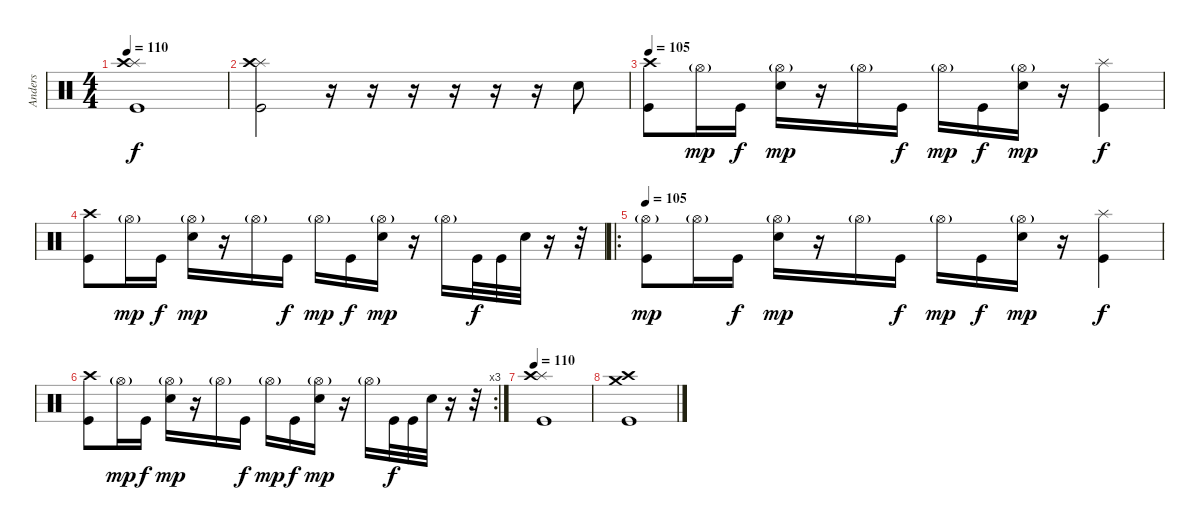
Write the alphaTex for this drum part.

\track ("Anders" "Anders") {instrument percussion}
\staff {score}
\articulation defaults
\ts (4 4)
\tempo 110
\clef neutral
\ks c
("Splash (hit)" "Crash high (hit)" "Kick (hit)").1{dy f} |
("Splash (hit)" "Crash high (hit)" "Kick (hit)").2 r.16 r.16 r.16 r.16 r.16 r.16 "Snare (hit) 2".8 |
\tempo 105
("Crash high (hit)" "Kick (hit)").8 "Hi-Hat (open)"{g}.16{dy mp} "Kick (hit)".16{dy f} ("Hi-Hat (open)"{g} "Snare (hit) 2").16{dy mp} r.16 "Hi-Hat (open)"{g}.16 "Kick (hit)".16{dy f} "Hi-Hat (open)"{g}.16{dy mp} "Kick (hit)".16{dy f} ("Hi-Hat (open)"{g} "Snare (hit) 2").16{dy mp} r.16 ("Splash (hit)" "Kick (hit)").4{dy f} |
("Crash high (hit)" "Kick (hit)").8 "Hi-Hat (open)"{g}.16{dy mp} "Kick (hit)".16{dy f} ("Hi-Hat (open)"{g} "Snare (hit) 2").16{dy mp} r.16 "Hi-Hat (open)"{g}.16 "Kick (hit)".16{dy f} "Hi-Hat (open)"{g}.16{dy mp} "Kick (hit)".16{dy f} ("Hi-Hat (open)"{g} "Snare (hit) 2").16{dy mp} r.16 "Hi-Hat (open)"{g}.16 "Kick (hit)".32{dy f} "Kick (hit)".32 "Snare (hit) 2".32 r.16 r.32 |
\ro
\tempo 105
("Hi-Hat (open)"{g} "Kick (hit)").8{dy mp} "Hi-Hat (open)"{g}.16 "Kick (hit)".16{dy f} ("Hi-Hat (open)"{g} "Snare (hit) 2").16{dy mp} r.16 "Hi-Hat (open)"{g}.16 "Kick (hit)".16{dy f} "Hi-Hat (open)"{g}.16{dy mp} "Kick (hit)".16{dy f} ("Hi-Hat (open)"{g} "Snare (hit) 2").16{dy mp} r.16 ("Splash (hit)" "Kick (hit)").4{dy f} |
\rc 3
("Crash high (hit)" "Kick (hit)").8 "Hi-Hat (open)"{g}.16{dy mp} "Kick (hit)".16{dy f} ("Hi-Hat (open)"{g} "Snare (hit) 2").16{dy mp} r.16 "Hi-Hat (open)"{g}.16 "Kick (hit)".16{dy f} "Hi-Hat (open)"{g}.16{dy mp} "Kick (hit)".16{dy f} ("Hi-Hat (open)"{g} "Snare (hit) 2").16{dy mp} r.16 "Hi-Hat (open)"{g}.16 "Kick (hit)".32{dy f} "Kick (hit)".32 "Snare (hit) 2".32 r.16 r.32 |
\tempo 110
("Splash (hit)" "Crash high (hit)" "Kick (hit)").1 |
("Crash medium (hit)" "Crash high (hit)" "Kick (hit)").1
